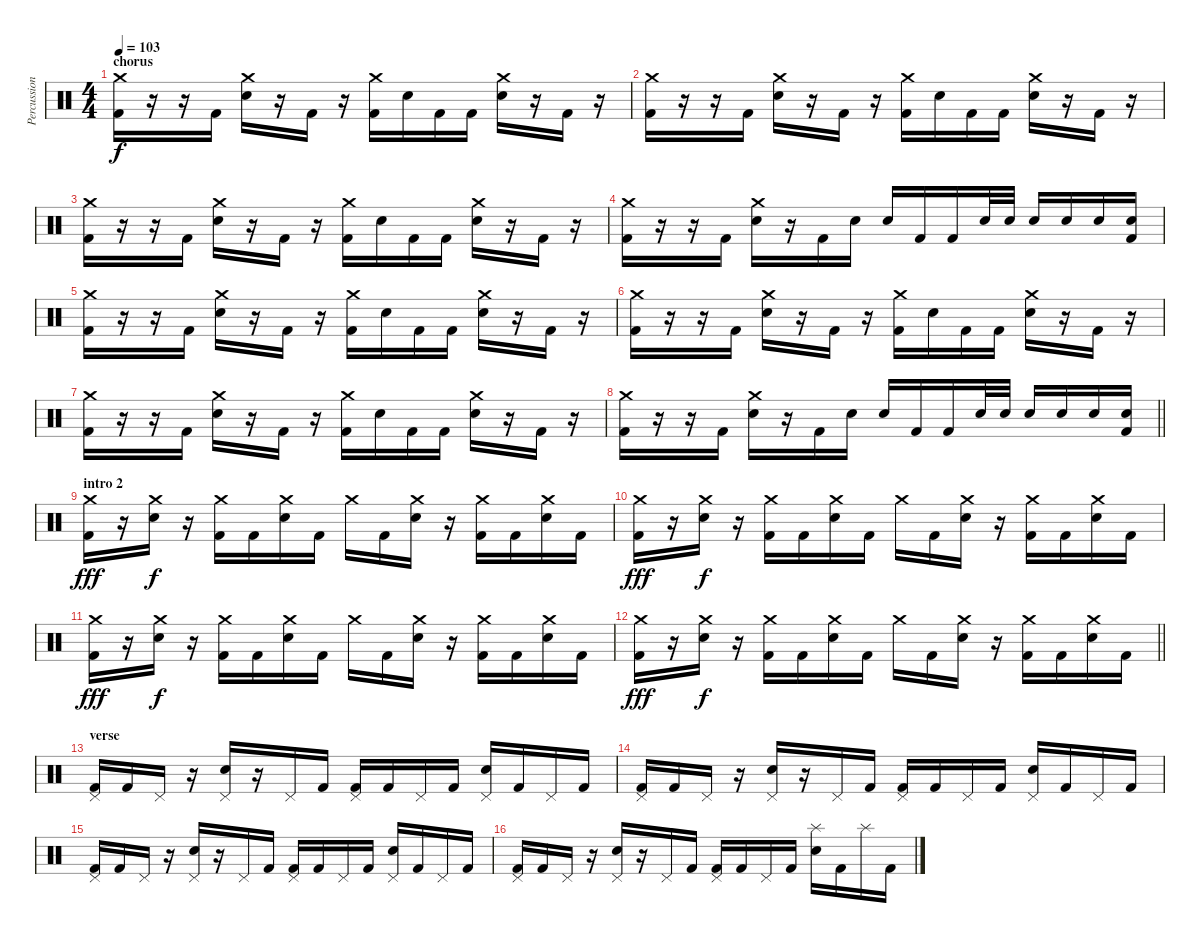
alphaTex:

\track ("Percussion" "Percussion") {instrument percussion}
\staff {score}
\articulation defaults
\ts (4 4)
\section ("" "chorus")
\tempo 103
\clef neutral
\ks c
("Crash medium (hit)" "Kick (hit) 2").16{dy f} r.16 r.16 "Kick (hit) 2".16 ("Crash medium (hit)" "Electric Snare (hit)").16 r.16 "Kick (hit) 2".16 r.16 ("Crash medium (hit)" "Kick (hit) 2").16 "Electric Snare (hit)".16 "Kick (hit) 2".16 "Kick (hit) 2".16 ("Crash medium (hit)" "Electric Snare (hit)").16 r.16 "Kick (hit) 2".16 r.16 |
("Crash medium (hit)" "Kick (hit) 2").16 r.16 r.16 "Kick (hit) 2".16 ("Crash medium (hit)" "Electric Snare (hit)").16 r.16 "Kick (hit) 2".16 r.16 ("Crash medium (hit)" "Kick (hit) 2").16 "Electric Snare (hit)".16 "Kick (hit) 2".16 "Kick (hit) 2".16 ("Crash medium (hit)" "Electric Snare (hit)").16 r.16 "Kick (hit) 2".16 r.16 |
("Crash medium (hit)" "Kick (hit) 2").16 r.16 r.16 "Kick (hit) 2".16 ("Crash medium (hit)" "Electric Snare (hit)").16 r.16 "Kick (hit) 2".16 r.16 ("Crash medium (hit)" "Kick (hit) 2").16 "Electric Snare (hit)".16 "Kick (hit) 2".16 "Kick (hit) 2".16 ("Crash medium (hit)" "Electric Snare (hit)").16 r.16 "Kick (hit) 2".16 r.16 |
("Crash medium (hit)" "Kick (hit) 2").16 r.16 r.16 "Kick (hit) 2".16 ("Crash medium (hit)" "Electric Snare (hit)").16 r.16 "Kick (hit) 2".16 "Electric Snare (hit)".16 "Electric Snare (hit)".16 "Kick (hit) 2".16 "Kick (hit) 2".16 "Electric Snare (hit)".32 "Electric Snare (hit)".32 "Electric Snare (hit)".16 "Electric Snare (hit)".16 "Electric Snare (hit)".16 ("Electric Snare (hit)" "Kick (hit) 2").16 |
("Crash medium (hit)" "Kick (hit) 2").16 r.16 r.16 "Kick (hit) 2".16 ("Crash medium (hit)" "Electric Snare (hit)").16 r.16 "Kick (hit) 2".16 r.16 ("Crash medium (hit)" "Kick (hit) 2").16 "Electric Snare (hit)".16 "Kick (hit) 2".16 "Kick (hit) 2".16 ("Crash medium (hit)" "Electric Snare (hit)").16 r.16 "Kick (hit) 2".16 r.16 |
("Crash medium (hit)" "Kick (hit) 2").16 r.16 r.16 "Kick (hit) 2".16 ("Crash medium (hit)" "Electric Snare (hit)").16 r.16 "Kick (hit) 2".16 r.16 ("Crash medium (hit)" "Kick (hit) 2").16 "Electric Snare (hit)".16 "Kick (hit) 2".16 "Kick (hit) 2".16 ("Crash medium (hit)" "Electric Snare (hit)").16 r.16 "Kick (hit) 2".16 r.16 |
("Crash medium (hit)" "Kick (hit) 2").16 r.16 r.16 "Kick (hit) 2".16 ("Crash medium (hit)" "Electric Snare (hit)").16 r.16 "Kick (hit) 2".16 r.16 ("Crash medium (hit)" "Kick (hit) 2").16 "Electric Snare (hit)".16 "Kick (hit) 2".16 "Kick (hit) 2".16 ("Crash medium (hit)" "Electric Snare (hit)").16 r.16 "Kick (hit) 2".16 r.16 |
\barLineRight lightlight
("Crash medium (hit)" "Kick (hit) 2").16 r.16 r.16 "Kick (hit) 2".16 ("Crash medium (hit)" "Electric Snare (hit)").16 r.16 "Kick (hit) 2".16 "Electric Snare (hit)".16 "Electric Snare (hit)".16 "Kick (hit) 2".16 "Kick (hit) 2".16 "Electric Snare (hit)".32 "Electric Snare (hit)".32 "Electric Snare (hit)".16 "Electric Snare (hit)".16 "Electric Snare (hit)".16 ("Electric Snare (hit)" "Kick (hit) 2").16 |
\section ("" "intro 2")
("Crash medium (hit)" "Kick (hit) 2").16{dy fff} r.16 ("Crash medium (hit)" "Electric Snare (hit)").16{dy f} r.16 ("Crash medium (hit)" "Kick (hit) 2").16 "Kick (hit) 2".16 ("Crash medium (hit)" "Electric Snare (hit)").16 "Kick (hit) 2".16 "Crash medium (hit)".16 "Kick (hit) 2".16 ("Crash medium (hit)" "Electric Snare (hit)").16 r.16 ("Crash medium (hit)" "Kick (hit) 2").16 "Kick (hit) 2".16 ("Crash medium (hit)" "Electric Snare (hit)").16 "Kick (hit) 2".16 |
("Crash medium (hit)" "Kick (hit) 2").16{dy fff} r.16 ("Crash medium (hit)" "Electric Snare (hit)").16{dy f} r.16 ("Crash medium (hit)" "Kick (hit) 2").16 "Kick (hit) 2".16 ("Crash medium (hit)" "Electric Snare (hit)").16 "Kick (hit) 2".16 "Crash medium (hit)".16 "Kick (hit) 2".16 ("Crash medium (hit)" "Electric Snare (hit)").16 r.16 ("Crash medium (hit)" "Kick (hit) 2").16 "Kick (hit) 2".16 ("Crash medium (hit)" "Electric Snare (hit)").16 "Kick (hit) 2".16 |
("Crash medium (hit)" "Kick (hit) 2").16{dy fff} r.16 ("Crash medium (hit)" "Electric Snare (hit)").16{dy f} r.16 ("Crash medium (hit)" "Kick (hit) 2").16 "Kick (hit) 2".16 ("Crash medium (hit)" "Electric Snare (hit)").16 "Kick (hit) 2".16 "Crash medium (hit)".16 "Kick (hit) 2".16 ("Crash medium (hit)" "Electric Snare (hit)").16 r.16 ("Crash medium (hit)" "Kick (hit) 2").16 "Kick (hit) 2".16 ("Crash medium (hit)" "Electric Snare (hit)").16 "Kick (hit) 2".16 |
\barLineRight lightlight
("Crash medium (hit)" "Kick (hit) 2").16{dy fff} r.16 ("Crash medium (hit)" "Electric Snare (hit)").16{dy f} r.16 ("Crash medium (hit)" "Kick (hit) 2").16 "Kick (hit) 2".16 ("Crash medium (hit)" "Electric Snare (hit)").16 "Kick (hit) 2".16 "Crash medium (hit)".16 "Kick (hit) 2".16 ("Crash medium (hit)" "Electric Snare (hit)").16 r.16 ("Crash medium (hit)" "Kick (hit) 2").16 "Kick (hit) 2".16 ("Crash medium (hit)" "Electric Snare (hit)").16 "Kick (hit) 2".16 |
\section ("" "verse")
("Pedal Hi-Hat (hit)" "Kick (hit) 2").16 "Kick (hit) 2".16 "Pedal Hi-Hat (hit)".16 r.16 ("Pedal Hi-Hat (hit)" "Electric Snare (hit)").16 r.16 "Pedal Hi-Hat (hit)".16 "Kick (hit) 2".16 ("Pedal Hi-Hat (hit)" "Kick (hit) 2").16 "Kick (hit) 2".16 "Pedal Hi-Hat (hit)".16 "Kick (hit) 2".16 ("Pedal Hi-Hat (hit)" "Electric Snare (hit)").16 "Kick (hit) 2".16 "Pedal Hi-Hat (hit)".16 "Kick (hit) 2".16 |
("Pedal Hi-Hat (hit)" "Kick (hit) 2").16 "Kick (hit) 2".16 "Pedal Hi-Hat (hit)".16 r.16 ("Pedal Hi-Hat (hit)" "Electric Snare (hit)").16 r.16 "Pedal Hi-Hat (hit)".16 "Kick (hit) 2".16 ("Pedal Hi-Hat (hit)" "Kick (hit) 2").16 "Kick (hit) 2".16 "Pedal Hi-Hat (hit)".16 "Kick (hit) 2".16 ("Pedal Hi-Hat (hit)" "Electric Snare (hit)").16 "Kick (hit) 2".16 "Pedal Hi-Hat (hit)".16 "Kick (hit) 2".16 |
("Pedal Hi-Hat (hit)" "Kick (hit) 2").16 "Kick (hit) 2".16 "Pedal Hi-Hat (hit)".16 r.16 ("Pedal Hi-Hat (hit)" "Electric Snare (hit)").16 r.16 "Pedal Hi-Hat (hit)".16 "Kick (hit) 2".16 ("Pedal Hi-Hat (hit)" "Kick (hit) 2").16 "Kick (hit) 2".16 "Pedal Hi-Hat (hit)".16 "Kick (hit) 2".16 ("Pedal Hi-Hat (hit)" "Electric Snare (hit)").16 "Kick (hit) 2".16 "Pedal Hi-Hat (hit)".16 "Kick (hit) 2".16 |
("Pedal Hi-Hat (hit)" "Kick (hit) 2").16 "Kick (hit) 2".16 "Pedal Hi-Hat (hit)".16 r.16 ("Pedal Hi-Hat (hit)" "Electric Snare (hit)").16 r.16 "Pedal Hi-Hat (hit)".16 "Kick (hit) 2".16 ("Pedal Hi-Hat (hit)" "Kick (hit) 2").16 "Kick (hit) 2".16 "Pedal Hi-Hat (hit)".16 "Kick (hit) 2".16 ("Splash (hit)" "Electric Snare (hit)").16 "Kick (hit) 2".16 "Splash (hit)".16 "Kick (hit) 2".16
